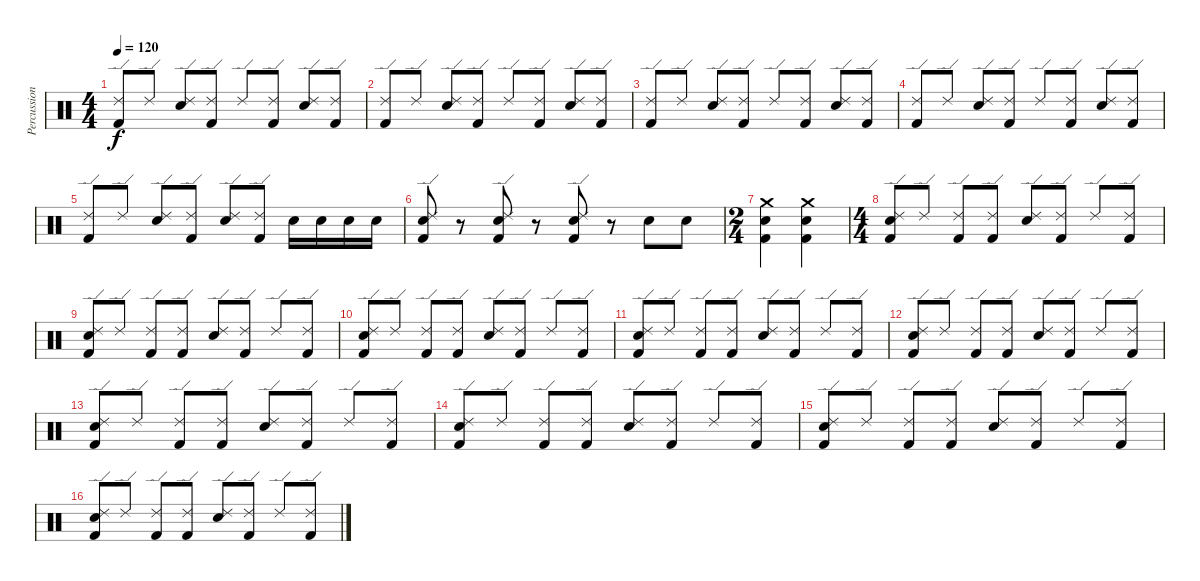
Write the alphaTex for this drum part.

\track ("Percussion" "Percussion") {instrument percussion}
\staff {score}
\articulation defaults
\ts (4 4)
\tempo 120
\clef neutral
\ks c
("Kick (hit) 2" "Ride (edge) 2").8{dy f} "Ride (edge) 2".8 ("Electric Snare (hit)" "Ride (edge) 2").8 ("Kick (hit) 2" "Ride (edge) 2").8 "Ride (edge) 2".8 ("Kick (hit) 2" "Ride (edge) 2").8 ("Electric Snare (hit)" "Ride (edge) 2").8 ("Kick (hit) 2" "Ride (edge) 2").8 |
("Kick (hit) 2" "Ride (edge) 2").8 "Ride (edge) 2".8 ("Electric Snare (hit)" "Ride (edge) 2").8 ("Kick (hit) 2" "Ride (edge) 2").8 "Ride (edge) 2".8 ("Kick (hit) 2" "Ride (edge) 2").8 ("Electric Snare (hit)" "Ride (edge) 2").8 ("Kick (hit) 2" "Ride (edge) 2").8 |
("Kick (hit) 2" "Ride (edge) 2").8 "Ride (edge) 2".8 ("Electric Snare (hit)" "Ride (edge) 2").8 ("Kick (hit) 2" "Ride (edge) 2").8 "Ride (edge) 2".8 ("Kick (hit) 2" "Ride (edge) 2").8 ("Electric Snare (hit)" "Ride (edge) 2").8 ("Kick (hit) 2" "Ride (edge) 2").8 |
("Kick (hit) 2" "Ride (edge) 2").8 "Ride (edge) 2".8 ("Electric Snare (hit)" "Ride (edge) 2").8 ("Kick (hit) 2" "Ride (edge) 2").8 "Ride (edge) 2".8 ("Kick (hit) 2" "Ride (edge) 2").8 ("Electric Snare (hit)" "Ride (edge) 2").8 ("Kick (hit) 2" "Ride (edge) 2").8 |
("Kick (hit) 2" "Ride (edge) 2").8 "Ride (edge) 2".8 ("Electric Snare (hit)" "Ride (edge) 2").8 ("Kick (hit) 2" "Ride (edge) 2").8 ("Electric Snare (hit)" "Ride (edge) 2").8 ("Kick (hit) 2" "Ride (edge) 2").8 "Electric Snare (hit)".16 "Electric Snare (hit)".16 "Electric Snare (hit)".16 "Electric Snare (hit)".16 |
("Kick (hit) 2" "Electric Snare (hit)" "Ride (edge) 2").8 r.8 ("Kick (hit) 2" "Electric Snare (hit)" "Ride (edge) 2").8 r.8 ("Kick (hit) 2" "Electric Snare (hit)" "Ride (edge) 2").8 r.8 "Electric Snare (hit)".8 "Electric Snare (hit)".8 |
\ts (2 4)
("Kick (hit) 2" "Electric Snare (hit)" "Crash medium (hit)").4 ("Kick (hit) 2" "Electric Snare (hit)" "Crash medium (hit)").4 |
\ts (4 4)
("Kick (hit) 2" "Electric Snare (hit)" "Ride (edge) 2").8 "Ride (edge) 2".8 ("Kick (hit) 2" "Ride (edge) 2").8 ("Kick (hit) 2" "Ride (edge) 2").8 ("Electric Snare (hit)" "Ride (edge) 2").8 ("Kick (hit) 2" "Ride (edge) 2").8 "Ride (edge) 2".8 ("Kick (hit) 2" "Ride (edge) 2").8 |
("Kick (hit) 2" "Electric Snare (hit)" "Ride (edge) 2").8 "Ride (edge) 2".8 ("Kick (hit) 2" "Ride (edge) 2").8 ("Kick (hit) 2" "Ride (edge) 2").8 ("Electric Snare (hit)" "Ride (edge) 2").8 ("Kick (hit) 2" "Ride (edge) 2").8 "Ride (edge) 2".8 ("Kick (hit) 2" "Ride (edge) 2").8 |
("Kick (hit) 2" "Electric Snare (hit)" "Ride (edge) 2").8 "Ride (edge) 2".8 ("Kick (hit) 2" "Ride (edge) 2").8 ("Kick (hit) 2" "Ride (edge) 2").8 ("Electric Snare (hit)" "Ride (edge) 2").8 ("Kick (hit) 2" "Ride (edge) 2").8 "Ride (edge) 2".8 ("Kick (hit) 2" "Ride (edge) 2").8 |
("Kick (hit) 2" "Electric Snare (hit)" "Ride (edge) 2").8 "Ride (edge) 2".8 ("Kick (hit) 2" "Ride (edge) 2").8 ("Kick (hit) 2" "Ride (edge) 2").8 ("Electric Snare (hit)" "Ride (edge) 2").8 ("Kick (hit) 2" "Ride (edge) 2").8 "Ride (edge) 2".8 ("Kick (hit) 2" "Ride (edge) 2").8 |
("Kick (hit) 2" "Electric Snare (hit)" "Ride (edge) 2").8 "Ride (edge) 2".8 ("Kick (hit) 2" "Ride (edge) 2").8 ("Kick (hit) 2" "Ride (edge) 2").8 ("Electric Snare (hit)" "Ride (edge) 2").8 ("Kick (hit) 2" "Ride (edge) 2").8 "Ride (edge) 2".8 ("Kick (hit) 2" "Ride (edge) 2").8 |
("Kick (hit) 2" "Electric Snare (hit)" "Ride (edge) 2").8 "Ride (edge) 2".8 ("Kick (hit) 2" "Ride (edge) 2").8 ("Kick (hit) 2" "Ride (edge) 2").8 ("Electric Snare (hit)" "Ride (edge) 2").8 ("Kick (hit) 2" "Ride (edge) 2").8 "Ride (edge) 2".8 ("Kick (hit) 2" "Ride (edge) 2").8 |
("Kick (hit) 2" "Electric Snare (hit)" "Ride (edge) 2").8 "Ride (edge) 2".8 ("Kick (hit) 2" "Ride (edge) 2").8 ("Kick (hit) 2" "Ride (edge) 2").8 ("Electric Snare (hit)" "Ride (edge) 2").8 ("Kick (hit) 2" "Ride (edge) 2").8 "Ride (edge) 2".8 ("Kick (hit) 2" "Ride (edge) 2").8 |
("Kick (hit) 2" "Electric Snare (hit)" "Ride (edge) 2").8 "Ride (edge) 2".8 ("Kick (hit) 2" "Ride (edge) 2").8 ("Kick (hit) 2" "Ride (edge) 2").8 ("Electric Snare (hit)" "Ride (edge) 2").8 ("Kick (hit) 2" "Ride (edge) 2").8 "Ride (edge) 2".8 ("Kick (hit) 2" "Ride (edge) 2").8 |
("Kick (hit) 2" "Electric Snare (hit)" "Ride (edge) 2").8 "Ride (edge) 2".8 ("Kick (hit) 2" "Ride (edge) 2").8 ("Kick (hit) 2" "Ride (edge) 2").8 ("Electric Snare (hit)" "Ride (edge) 2").8 ("Kick (hit) 2" "Ride (edge) 2").8 "Ride (edge) 2".8 ("Kick (hit) 2" "Ride (edge) 2").8
